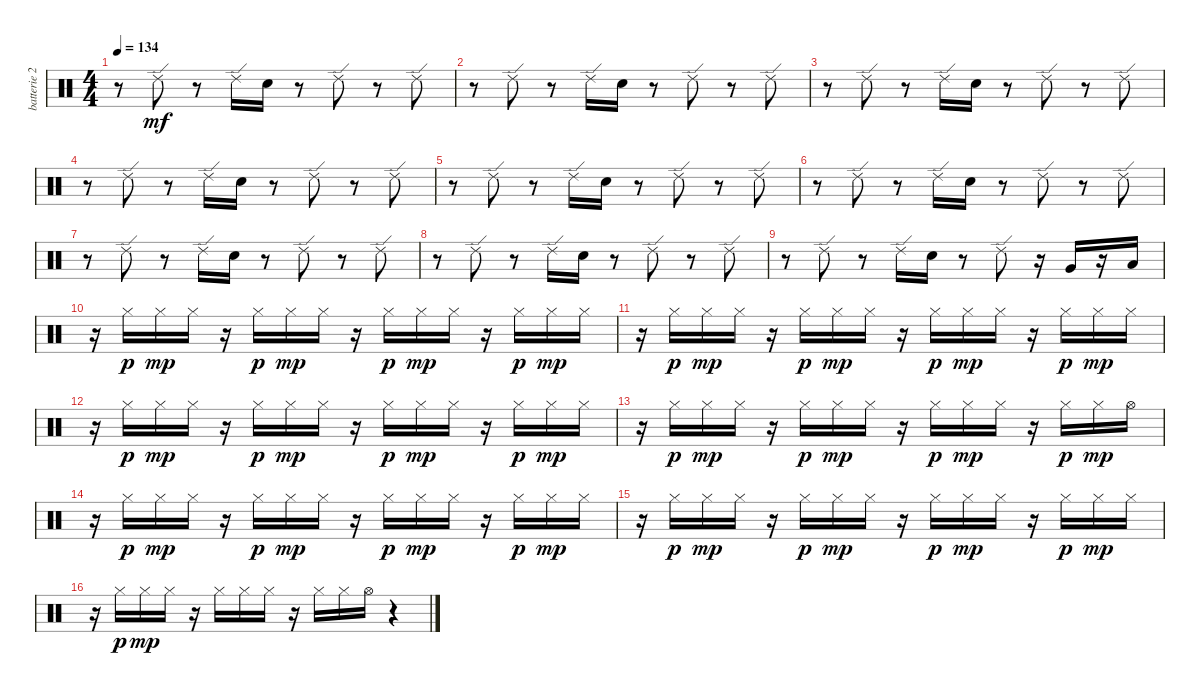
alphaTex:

\track ("batterie 2" "batterie 2") {instrument percussion}
\staff {score}
\articulation defaults
\ts (4 4)
\tempo 134
\clef neutral
\ks c
r.8{dy mf} "Ride (edge) 2".8 r.8 "Ride (edge) 2".16 "Electric Snare (hit)".16 r.8 "Ride (edge) 2".8 r.8 "Ride (edge) 2".8 |
r.8 "Ride (edge) 2".8 r.8 "Ride (edge) 2".16 "Electric Snare (hit)".16 r.8 "Ride (edge) 2".8 r.8 "Ride (edge) 2".8 |
r.8 "Ride (edge) 2".8 r.8 "Ride (edge) 2".16 "Electric Snare (hit)".16 r.8 "Ride (edge) 2".8 r.8 "Ride (edge) 2".8 |
r.8 "Ride (edge) 2".8 r.8 "Ride (edge) 2".16 "Electric Snare (hit)".16 r.8 "Ride (edge) 2".8 r.8 "Ride (edge) 2".8 |
r.8 "Ride (edge) 2".8 r.8 "Ride (edge) 2".16 "Electric Snare (hit)".16 r.8 "Ride (edge) 2".8 r.8 "Ride (edge) 2".8 |
r.8 "Ride (edge) 2".8 r.8 "Ride (edge) 2".16 "Electric Snare (hit)".16 r.8 "Ride (edge) 2".8 r.8 "Ride (edge) 2".8 |
r.8 "Ride (edge) 2".8 r.8 "Ride (edge) 2".16 "Electric Snare (hit)".16 r.8 "Ride (edge) 2".8 r.8 "Ride (edge) 2".8 |
r.8 "Ride (edge) 2".8 r.8 "Ride (edge) 2".16 "Electric Snare (hit)".16 r.8 "Ride (edge) 2".8 r.8 "Ride (edge) 2".8 |
r.8 "Ride (edge) 2".8 r.8 "Ride (edge) 2".16 "Electric Snare (hit)".16 r.8 "Ride (edge) 2".8 r.16 "Very Low Tom (hit)".16 r.16 "Low Floor Tom (hit)".16 |
r.16 "Hi-Hat (closed)".16{dy p} "Hi-Hat (closed)".16{dy mp} "Hi-Hat (closed)".16 r.16 "Hi-Hat (closed)".16{dy p} "Hi-Hat (closed)".16{dy mp} "Hi-Hat (closed)".16 r.16 "Hi-Hat (closed)".16{dy p} "Hi-Hat (closed)".16{dy mp} "Hi-Hat (closed)".16 r.16 "Hi-Hat (closed)".16{dy p} "Hi-Hat (closed)".16{dy mp} "Hi-Hat (closed)".16 |
r.16 "Hi-Hat (closed)".16{dy p} "Hi-Hat (closed)".16{dy mp} "Hi-Hat (closed)".16 r.16 "Hi-Hat (closed)".16{dy p} "Hi-Hat (closed)".16{dy mp} "Hi-Hat (closed)".16 r.16 "Hi-Hat (closed)".16{dy p} "Hi-Hat (closed)".16{dy mp} "Hi-Hat (closed)".16 r.16 "Hi-Hat (closed)".16{dy p} "Hi-Hat (closed)".16{dy mp} "Hi-Hat (closed)".16 |
r.16 "Hi-Hat (closed)".16{dy p} "Hi-Hat (closed)".16{dy mp} "Hi-Hat (closed)".16 r.16 "Hi-Hat (closed)".16{dy p} "Hi-Hat (closed)".16{dy mp} "Hi-Hat (closed)".16 r.16 "Hi-Hat (closed)".16{dy p} "Hi-Hat (closed)".16{dy mp} "Hi-Hat (closed)".16 r.16 "Hi-Hat (closed)".16{dy p} "Hi-Hat (closed)".16{dy mp} "Hi-Hat (closed)".16 |
r.16 "Hi-Hat (closed)".16{dy p} "Hi-Hat (closed)".16{dy mp} "Hi-Hat (closed)".16 r.16 "Hi-Hat (closed)".16{dy p} "Hi-Hat (closed)".16{dy mp} "Hi-Hat (closed)".16 r.16 "Hi-Hat (closed)".16{dy p} "Hi-Hat (closed)".16{dy mp} "Hi-Hat (closed)".16 r.16 "Hi-Hat (closed)".16{dy p} "Hi-Hat (closed)".16{dy mp} "Hi-Hat (open)".16 |
r.16 "Hi-Hat (closed)".16{dy p} "Hi-Hat (closed)".16{dy mp} "Hi-Hat (closed)".16 r.16 "Hi-Hat (closed)".16{dy p} "Hi-Hat (closed)".16{dy mp} "Hi-Hat (closed)".16 r.16 "Hi-Hat (closed)".16{dy p} "Hi-Hat (closed)".16{dy mp} "Hi-Hat (closed)".16 r.16 "Hi-Hat (closed)".16{dy p} "Hi-Hat (closed)".16{dy mp} "Hi-Hat (closed)".16 |
r.16 "Hi-Hat (closed)".16{dy p} "Hi-Hat (closed)".16{dy mp} "Hi-Hat (closed)".16 r.16 "Hi-Hat (closed)".16{dy p} "Hi-Hat (closed)".16{dy mp} "Hi-Hat (closed)".16 r.16 "Hi-Hat (closed)".16{dy p} "Hi-Hat (closed)".16{dy mp} "Hi-Hat (closed)".16 r.16 "Hi-Hat (closed)".16{dy p} "Hi-Hat (closed)".16{dy mp} "Hi-Hat (closed)".16 |
r.16 "Hi-Hat (closed)".16{dy p} "Hi-Hat (closed)".16{dy mp} "Hi-Hat (closed)".16 r.16 "Hi-Hat (closed)".16 "Hi-Hat (closed)".16 "Hi-Hat (closed)".16 r.16 "Hi-Hat (closed)".16 "Hi-Hat (closed)".16 "Hi-Hat (open)".16 r.4
